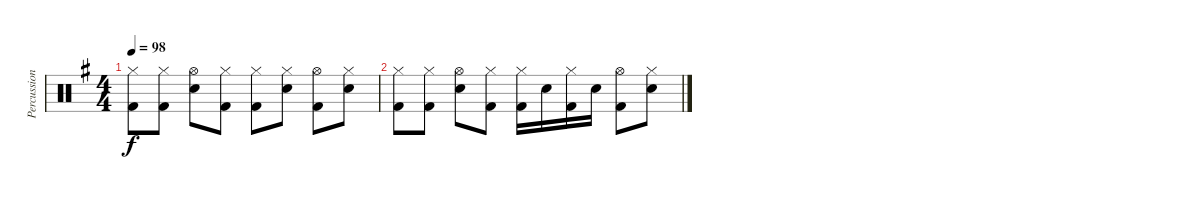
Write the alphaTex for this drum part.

\track ("Percussion" "Percussion") {instrument percussion}
\staff {score}
\articulation defaults
\ts (4 4)
\tempo 98
\clef neutral
\ks eminor
("Hi-Hat (closed)" "Kick (hit) 2").8{dy f} ("Hi-Hat (closed)" "Kick (hit) 2").8 ("Hi-Hat (open)" "Electric Snare (hit)").8 ("Hi-Hat (closed)" "Kick (hit) 2").8 ("Hi-Hat (closed)" "Kick (hit) 2").8 ("Hi-Hat (closed)" "Electric Snare (hit)").8 ("Hi-Hat (open)" "Kick (hit) 2").8 ("Hi-Hat (closed)" "Electric Snare (hit)").8 |
("Hi-Hat (closed)" "Kick (hit) 2").8 ("Hi-Hat (closed)" "Kick (hit) 2").8 ("Hi-Hat (open)" "Electric Snare (hit)").8 ("Hi-Hat (closed)" "Kick (hit) 2").8 ("Hi-Hat (closed)" "Kick (hit) 2").16 "Electric Snare (hit)".16 ("Hi-Hat (closed)" "Kick (hit) 2").16 "Electric Snare (hit)".16 ("Hi-Hat (open)" "Kick (hit) 2").8 ("Hi-Hat (closed)" "Electric Snare (hit)").8
